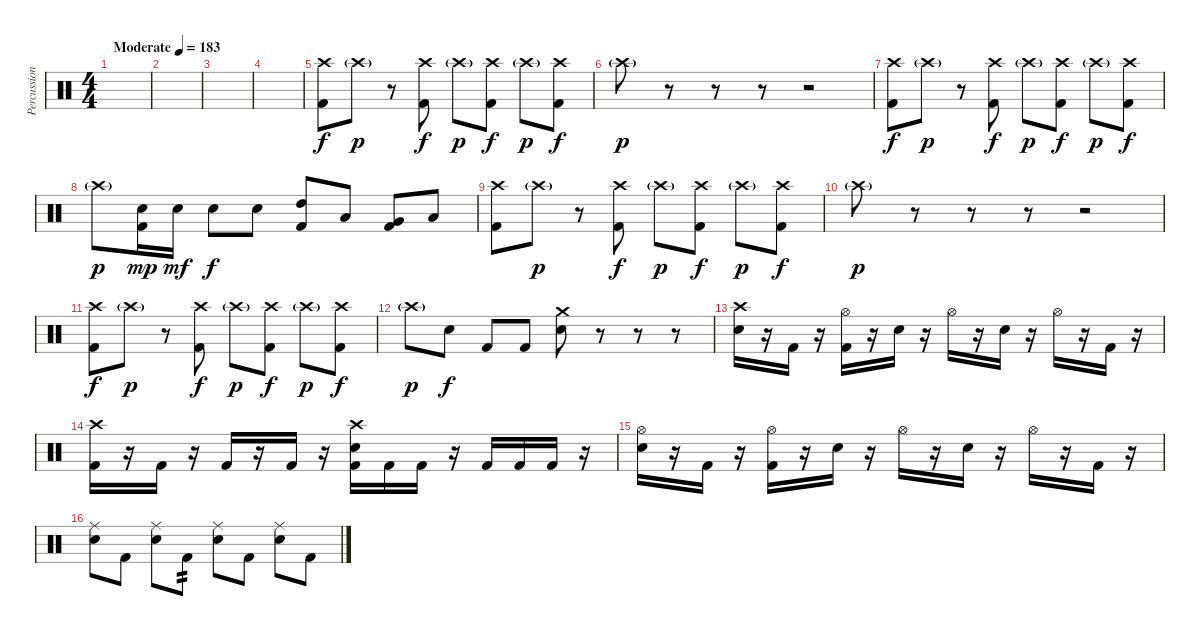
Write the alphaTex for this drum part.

\track ("Percussion" "Percussion") {instrument percussion}
\staff {score}
\articulation defaults
\ts (4 4)
\tempo (183 "Moderate")
\clef neutral
\ks c
|
|
|
|
("Crash high (hit)" "Kick (hit) 2").8 "Crash high (hit)"{g}.8{dy p} r.8 ("Crash high (hit)" "Kick (hit) 2").8{dy f} "Crash high (hit)"{g}.8{dy p} ("Crash high (hit)" "Kick (hit) 2").8{dy f} "Crash high (hit)"{g}.8{dy p} ("Crash high (hit)" "Kick (hit) 2").8{dy f} |
"Crash high (hit)"{g}.8{dy p} r.8 r.8 r.8 r.2 |
("Crash high (hit)" "Kick (hit) 2").8{dy f} "Crash high (hit)"{g}.8{dy p} r.8 ("Crash high (hit)" "Kick (hit) 2").8{dy f} "Crash high (hit)"{g}.8{dy p} ("Crash high (hit)" "Kick (hit) 2").8{dy f} "Crash high (hit)"{g}.8{dy p} ("Crash high (hit)" "Kick (hit) 2").8{dy f} |
"Crash high (hit)"{g}.8{dy p} ("Snare (hit) 2" "Kick (hit) 2").16{dy mp} "Snare (hit) 2".16{dy mf} "Snare (hit) 2".8{dy f} "Snare (hit) 2".8 ("High Tom (hit)" "Kick (hit) 2").8 "Low Tom (hit)".8 ("Very Low Tom (hit)" "Kick (hit) 2").8 "Low Floor Tom (hit)".8 |
("Crash high (hit)" "Kick (hit) 2").8 "Crash high (hit)"{g}.8{dy p} r.8 ("Crash high (hit)" "Kick (hit) 2").8{dy f} "Crash high (hit)"{g}.8{dy p} ("Crash high (hit)" "Kick (hit) 2").8{dy f} "Crash high (hit)"{g}.8{dy p} ("Crash high (hit)" "Kick (hit) 2").8{dy f} |
"Crash high (hit)"{g}.8{dy p} r.8 r.8 r.8 r.2 |
("Crash high (hit)" "Kick (hit) 2").8{dy f} "Crash high (hit)"{g}.8{dy p} r.8 ("Crash high (hit)" "Kick (hit) 2").8{dy f} "Crash high (hit)"{g}.8{dy p} ("Crash high (hit)" "Kick (hit) 2").8{dy f} "Crash high (hit)"{g}.8{dy p} ("Crash high (hit)" "Kick (hit) 2").8{dy f} |
"Crash high (hit)"{g}.8{dy p} "Snare (hit) 2".8{dy f} "Kick (hit) 2".8 "Kick (hit) 2".8 ("Crash medium (hit)" "Snare (hit) 2").8 r.8 r.8 r.8 |
("Crash high (hit)" "Snare (hit) 2").16 r.16 "Kick (hit) 2".16 r.16 ("Hi-Hat (open)" "Kick (hit) 2").16 r.16 "Snare (hit) 2".16 r.16 "Hi-Hat (open)".16 r.16 "Snare (hit) 2".16 r.16 "Hi-Hat (open)".16 r.16 "Kick (hit) 2".16 r.16 |
("Crash high (hit)" "Kick (hit) 2").16 r.16 "Kick (hit) 2".16 r.16 "Kick (hit) 2".16 r.16 "Kick (hit) 2".16 r.16 ("Crash high (hit)" "Snare (hit) 2" "Kick (hit) 2").16 "Kick (hit) 2".16 "Kick (hit) 2".16 r.16 "Kick (hit) 2".16 "Kick (hit) 2".16 "Kick (hit) 2".16 r.16 |
("Hi-Hat (open)" "Snare (hit) 2").16 r.16 "Kick (hit) 2".16 r.16 ("Hi-Hat (open)" "Kick (hit) 2").16 r.16 "Snare (hit) 2".16 r.16 "Hi-Hat (open)".16 r.16 "Snare (hit) 2".16 r.16 "Hi-Hat (open)".16 r.16 "Kick (hit) 2".16 r.16 |
("Ride (middle)" "Snare (hit) 2").8 "Kick (hit) 2".8 ("Ride (middle)" "Snare (hit) 2").8 "Kick (hit) 2".8{tp 2} ("Ride (middle)" "Snare (hit) 2").8 "Kick (hit) 2".8 ("Ride (middle)" "Snare (hit) 2").8 "Kick (hit) 2".8
